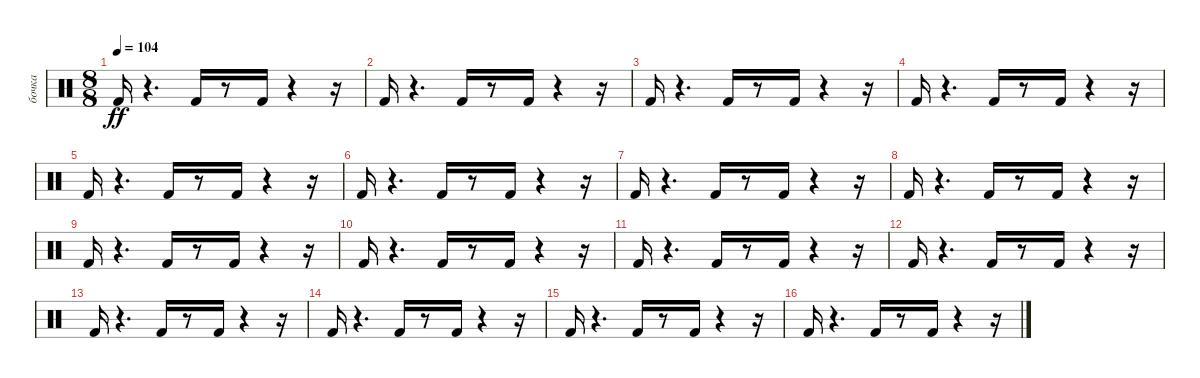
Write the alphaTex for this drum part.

\track ("бочка" "бочка") {instrument percussion}
\staff {score}
\articulation defaults
\ts (8 8)
\tempo 104
\clef neutral
\ks c "Kick (hit) 2".16{dy ff}
r.4{d} "Kick (hit) 2".16 r.8 "Kick (hit) 2".16 r.4 r.16 |
"Kick (hit) 2".16 r.4{d} "Kick (hit) 2".16 r.8 "Kick (hit) 2".16 r.4 r.16 |
"Kick (hit) 2".16 r.4{d} "Kick (hit) 2".16 r.8 "Kick (hit) 2".16 r.4 r.16 |
"Kick (hit) 2".16 r.4{d} "Kick (hit) 2".16 r.8 "Kick (hit) 2".16 r.4 r.16 |
"Kick (hit) 2".16 r.4{d} "Kick (hit) 2".16 r.8 "Kick (hit) 2".16 r.4 r.16 |
"Kick (hit) 2".16 r.4{d} "Kick (hit) 2".16 r.8 "Kick (hit) 2".16 r.4 r.16 |
"Kick (hit) 2".16 r.4{d} "Kick (hit) 2".16 r.8 "Kick (hit) 2".16 r.4 r.16 |
"Kick (hit) 2".16 r.4{d} "Kick (hit) 2".16 r.8 "Kick (hit) 2".16 r.4 r.16 |
"Kick (hit) 2".16 r.4{d} "Kick (hit) 2".16 r.8 "Kick (hit) 2".16 r.4 r.16 |
"Kick (hit) 2".16 r.4{d} "Kick (hit) 2".16 r.8 "Kick (hit) 2".16 r.4 r.16 |
"Kick (hit) 2".16 r.4{d} "Kick (hit) 2".16 r.8 "Kick (hit) 2".16 r.4 r.16 |
"Kick (hit) 2".16 r.4{d} "Kick (hit) 2".16 r.8 "Kick (hit) 2".16 r.4 r.16 |
"Kick (hit) 2".16 r.4{d} "Kick (hit) 2".16 r.8 "Kick (hit) 2".16 r.4 r.16 |
"Kick (hit) 2".16 r.4{d} "Kick (hit) 2".16 r.8 "Kick (hit) 2".16 r.4 r.16 |
"Kick (hit) 2".16 r.4{d} "Kick (hit) 2".16 r.8 "Kick (hit) 2".16 r.4 r.16 |
"Kick (hit) 2".16 r.4{d} "Kick (hit) 2".16 r.8 "Kick (hit) 2".16 r.4 r.16
